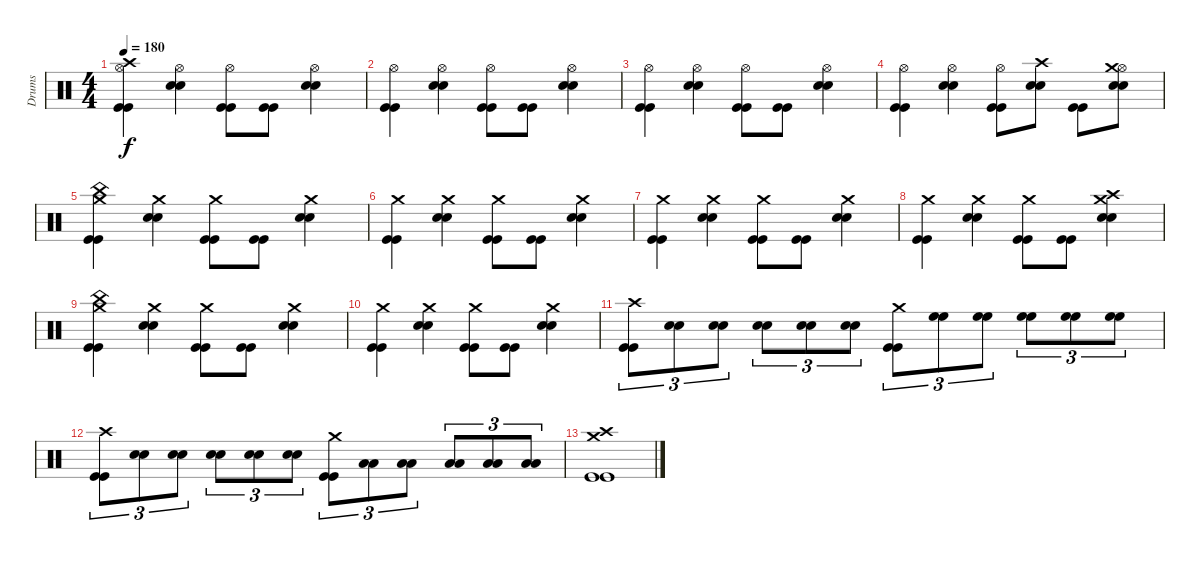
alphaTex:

\track ("Drums" "Drums") {instrument percussion}
\staff {score}
\articulation defaults
\ts (4 4)
\tempo 180
\clef neutral
\ks c
("Kick (hit)" "Kick (hit)" "Hi-Hat (open)" "Crash high (hit)").4{dy f} ("Snare (hit) 2" "Snare (hit) 2" "Hi-Hat (open)").4 ("Kick (hit)" "Kick (hit)" "Hi-Hat (open)").8 ("Kick (hit)" "Kick (hit)").8 ("Snare (hit) 2" "Snare (hit) 2" "Hi-Hat (open)").4 |
("Kick (hit)" "Kick (hit)" "Hi-Hat (open)").4 ("Snare (hit) 2" "Snare (hit) 2" "Hi-Hat (open)").4 ("Kick (hit)" "Kick (hit)" "Hi-Hat (open)").8 ("Kick (hit)" "Kick (hit)").8 ("Snare (hit) 2" "Snare (hit) 2" "Hi-Hat (open)").4 |
("Kick (hit)" "Kick (hit)" "Hi-Hat (open)").4 ("Snare (hit) 2" "Snare (hit) 2" "Hi-Hat (open)").4 ("Kick (hit)" "Kick (hit)" "Hi-Hat (open)").8 ("Kick (hit)" "Kick (hit)").8 ("Snare (hit) 2" "Snare (hit) 2" "Hi-Hat (open)").4 |
("Kick (hit)" "Kick (hit)" "Hi-Hat (open)").4 ("Snare (hit) 2" "Snare (hit) 2" "Hi-Hat (open)").4 ("Kick (hit)" "Kick (hit)" "Hi-Hat (open)").8 ("Snare (hit) 2" "Snare (hit) 2" "Crash high (hit)").8 ("Kick (hit)" "Kick (hit)").8 ("Snare (hit) 2" "Snare (hit) 2" "Hi-Hat (open)" "Crash medium (hit)").8 |
("China (hit)" "Crash medium (hit)" "Kick (hit)" "Kick (hit)").4 ("Crash medium (hit)" "Snare (hit) 2" "Snare (hit) 2").4 ("Crash medium (hit)" "Kick (hit)" "Kick (hit)").8 ("Kick (hit)" "Kick (hit)").8 ("Crash medium (hit)" "Snare (hit) 2" "Snare (hit) 2").4 |
("Crash medium (hit)" "Kick (hit)" "Kick (hit)").4 ("Crash medium (hit)" "Snare (hit) 2" "Snare (hit) 2").4 ("Crash medium (hit)" "Kick (hit)" "Kick (hit)").8 ("Kick (hit)" "Kick (hit)").8 ("Crash medium (hit)" "Snare (hit) 2" "Snare (hit) 2").4 |
("Crash medium (hit)" "Kick (hit)" "Kick (hit)").4 ("Crash medium (hit)" "Snare (hit) 2" "Snare (hit) 2").4 ("Crash medium (hit)" "Kick (hit)" "Kick (hit)").8 ("Kick (hit)" "Kick (hit)").8 ("Crash medium (hit)" "Snare (hit) 2" "Snare (hit) 2").4 |
("Crash medium (hit)" "Kick (hit)" "Kick (hit)").4 ("Crash medium (hit)" "Snare (hit) 2" "Snare (hit) 2").4 ("Crash medium (hit)" "Kick (hit)" "Kick (hit)").8 ("Kick (hit)" "Kick (hit)").8 ("Crash high (hit)" "Crash medium (hit)" "Snare (hit) 2" "Snare (hit) 2").4 |
("China (hit)" "Crash medium (hit)" "Kick (hit)" "Kick (hit)").4 ("Crash medium (hit)" "Snare (hit) 2" "Snare (hit) 2").4 ("Crash medium (hit)" "Kick (hit)" "Kick (hit)").8 ("Kick (hit)" "Kick (hit)").8 ("Crash medium (hit)" "Snare (hit) 2" "Snare (hit) 2").4 |
("Crash medium (hit)" "Kick (hit)" "Kick (hit)").4 ("Crash medium (hit)" "Snare (hit) 2" "Snare (hit) 2").4 ("Crash medium (hit)" "Kick (hit)" "Kick (hit)").8 ("Kick (hit)" "Kick (hit)").8 ("Crash medium (hit)" "Snare (hit) 2" "Snare (hit) 2").4 |
("Crash high (hit)" "Kick (hit)" "Kick (hit)").8{tu (3 2)} ("Snare (hit) 2" "Snare (hit) 2").8{tu (3 2)} ("Snare (hit) 2" "Snare (hit) 2").8{tu (3 2)} ("Snare (hit) 2" "Snare (hit) 2").8{tu (3 2)} ("Snare (hit) 2" "Snare (hit) 2").8{tu (3 2)} ("Snare (hit) 2" "Snare (hit) 2").8{tu (3 2)} ("Crash medium (hit)" "Kick (hit)" "Kick (hit)").8{tu (3 2)} ("High Floor Tom (hit)" "High Floor Tom (hit)").8{tu (3 2)} ("High Floor Tom (hit)" "High Floor Tom (hit)").8{tu (3 2)} ("High Floor Tom (hit)" "High Floor Tom (hit)").8{tu (3 2)} ("High Floor Tom (hit)" "High Floor Tom (hit)").8{tu (3 2)} ("High Floor Tom (hit)" "High Floor Tom (hit)").8{tu (3 2)} |
("Crash high (hit)" "Kick (hit)" "Kick (hit)").8{tu (3 2)} ("Snare (hit) 2" "Snare (hit) 2").8{tu (3 2)} ("Snare (hit) 2" "Snare (hit) 2").8{tu (3 2)} ("Snare (hit) 2" "Snare (hit) 2").8{tu (3 2)} ("Snare (hit) 2" "Snare (hit) 2").8{tu (3 2)} ("Snare (hit) 2" "Snare (hit) 2").8{tu (3 2)} ("Crash medium (hit)" "Kick (hit)" "Kick (hit)").8{tu (3 2)} ("Low Tom (hit)" "Low Tom (hit)").8{tu (3 2)} ("Low Tom (hit)" "Low Tom (hit)").8{tu (3 2)} ("Low Tom (hit)" "Low Tom (hit)").8{tu (3 2)} ("Low Tom (hit)" "Low Tom (hit)").8{tu (3 2)} ("Low Tom (hit)" "Low Tom (hit)").8{tu (3 2)} |
("Crash medium (hit)" "Crash high (hit)" "Kick (hit)" "Kick (hit)").1
